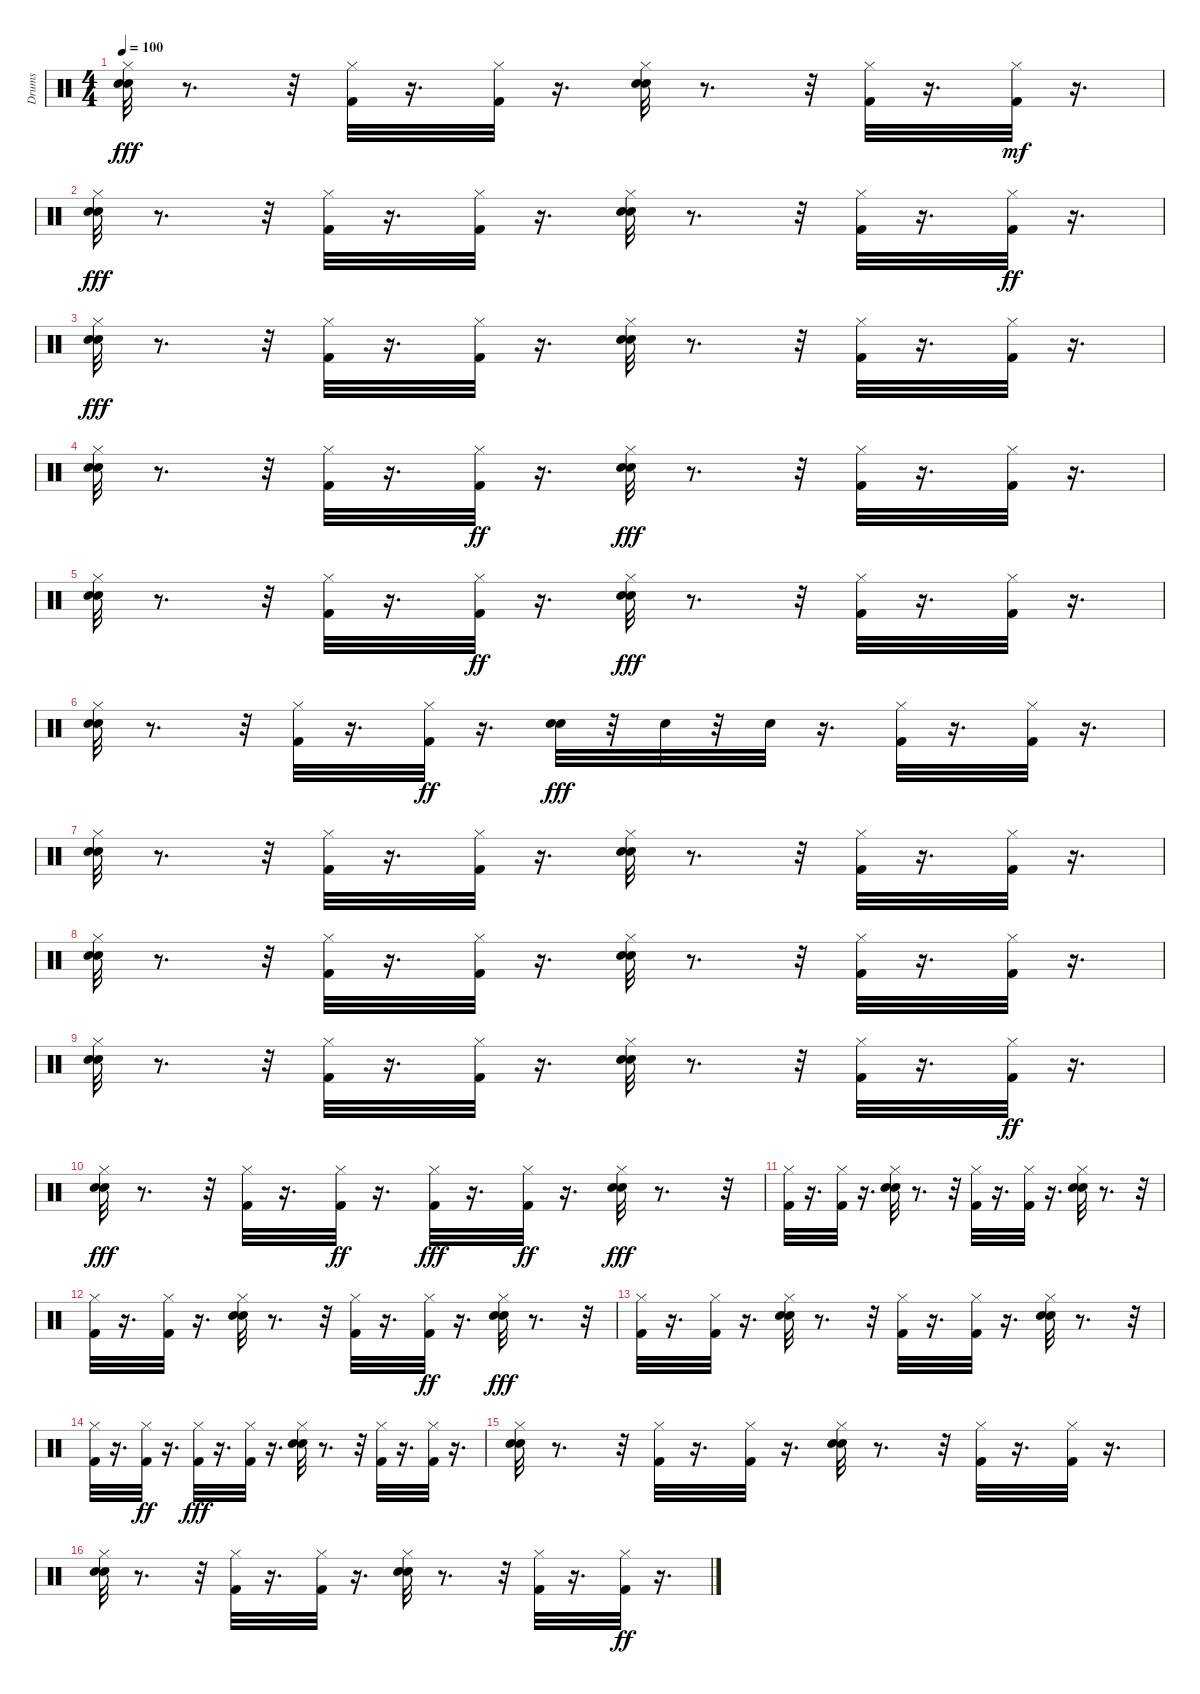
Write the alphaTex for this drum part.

\track ("Drums" "Drums") {instrument percussion}
\staff {score}
\articulation defaults
\ts (4 4)
\tempo 100
\clef neutral
\ks c
("Hi-Hat (closed)" "Snare (hit) 2" "Hand Clap (hit)").32{dy fff} r.8{d} r.32 ("Hi-Hat (closed)" "Kick (hit) 2").32 r.16{d} ("Kick (hit) 2" "Hi-Hat (closed)").32 r.16{d} ("Hand Clap (hit)" "Hi-Hat (closed)" "Snare (hit) 2").32 r.8{d} r.32 ("Hi-Hat (closed)" "Kick (hit) 2").32 r.16{d} ("Kick (hit) 2" "Hi-Hat (closed)").32{dy mf} r.16{d} |
("Snare (hit) 2" "Hand Clap (hit)" "Hi-Hat (closed)").32{dy fff} r.8{d} r.32 ("Hi-Hat (closed)" "Kick (hit) 2").32 r.16{d} ("Kick (hit) 2" "Hi-Hat (closed)").32 r.16{d} ("Hand Clap (hit)" "Hi-Hat (closed)" "Snare (hit) 2").32 r.8{d} r.32 ("Hi-Hat (closed)" "Kick (hit) 2").32 r.16{d} ("Kick (hit) 2" "Hi-Hat (closed)").32{dy ff} r.16{d} |
("Snare (hit) 2" "Hand Clap (hit)" "Hi-Hat (closed)").32{dy fff} r.8{d} r.32 ("Kick (hit) 2" "Hi-Hat (closed)").32 r.16{d} ("Hi-Hat (closed)" "Kick (hit) 2").32 r.16{d} ("Hand Clap (hit)" "Snare (hit) 2" "Hi-Hat (closed)").32 r.8{d} r.32 ("Hi-Hat (closed)" "Kick (hit) 2").32 r.16{d} ("Hi-Hat (closed)" "Kick (hit) 2").32 r.16{d} |
("Hi-Hat (closed)" "Snare (hit) 2" "Hand Clap (hit)").32 r.8{d} r.32 ("Hi-Hat (closed)" "Kick (hit) 2").32 r.16{d} ("Kick (hit) 2" "Hi-Hat (closed)").32{dy ff} r.16{d} ("Hi-Hat (closed)" "Snare (hit) 2" "Hand Clap (hit)").32{dy fff} r.8{d} r.32 ("Hi-Hat (closed)" "Kick (hit) 2").32 r.16{d} ("Hi-Hat (closed)" "Kick (hit) 2").32 r.16{d} |
("Hand Clap (hit)" "Snare (hit) 2" "Hi-Hat (closed)").32 r.8{d} r.32 ("Hi-Hat (closed)" "Kick (hit) 2").32 r.16{d} ("Kick (hit) 2" "Hi-Hat (closed)").32{dy ff} r.16{d} ("Snare (hit) 2" "Hand Clap (hit)" "Hi-Hat (closed)").32{dy fff} r.8{d} r.32 ("Hi-Hat (closed)" "Kick (hit) 2").32 r.16{d} ("Kick (hit) 2" "Hi-Hat (closed)").32 r.16{d} |
("Hand Clap (hit)" "Hi-Hat (closed)" "Snare (hit) 2").32 r.8{d} r.32 ("Hi-Hat (closed)" "Kick (hit) 2").32 r.16{d} ("Kick (hit) 2" "Hi-Hat (closed)").32{dy ff} r.16{d} ("Snare (hit) 2" "Hand Clap (hit)").32{dy fff} r.32 "Snare (hit) 2".32 r.32 "Snare (hit) 2".32 r.16{d} ("Kick (hit) 2" "Hi-Hat (closed)").32 r.16{d} ("Hi-Hat (closed)" "Kick (hit) 2").32 r.16{d} |
("Snare (hit) 2" "Hand Clap (hit)" "Hi-Hat (closed)").32 r.8{d} r.32 ("Hi-Hat (closed)" "Kick (hit) 2").32 r.16{d} ("Hi-Hat (closed)" "Kick (hit) 2").32 r.16{d} ("Hi-Hat (closed)" "Snare (hit) 2" "Hand Clap (hit)").32 r.8{d} r.32 ("Kick (hit) 2" "Hi-Hat (closed)").32 r.16{d} ("Hi-Hat (closed)" "Kick (hit) 2").32 r.16{d} |
("Snare (hit) 2" "Hand Clap (hit)" "Hi-Hat (closed)").32 r.8{d} r.32 ("Hi-Hat (closed)" "Kick (hit) 2").32 r.16{d} ("Hi-Hat (closed)" "Kick (hit) 2").32 r.16{d} ("Hi-Hat (closed)" "Hand Clap (hit)" "Snare (hit) 2").32 r.8{d} r.32 ("Kick (hit) 2" "Hi-Hat (closed)").32 r.16{d} ("Hi-Hat (closed)" "Kick (hit) 2").32 r.16{d} |
("Snare (hit) 2" "Hi-Hat (closed)" "Hand Clap (hit)").32 r.8{d} r.32 ("Hi-Hat (closed)" "Kick (hit) 2").32 r.16{d} ("Hi-Hat (closed)" "Kick (hit) 2").32 r.16{d} ("Hand Clap (hit)" "Snare (hit) 2" "Hi-Hat (closed)").32 r.8{d} r.32 ("Hi-Hat (closed)" "Kick (hit) 2").32 r.16{d} ("Kick (hit) 2" "Hi-Hat (closed)").32{dy ff} r.16{d} |
("Hi-Hat (closed)" "Snare (hit) 2" "Hand Clap (hit)").32{dy fff} r.8{d} r.32 ("Hi-Hat (closed)" "Kick (hit) 2").32 r.16{d} ("Hi-Hat (closed)" "Kick (hit) 2").32{dy ff} r.16{d} ("Hi-Hat (closed)" "Kick (hit) 2").32{dy fff} r.16{d} ("Kick (hit) 2" "Hi-Hat (closed)").32{dy ff} r.16{d} ("Snare (hit) 2" "Hi-Hat (closed)" "Hand Clap (hit)").32{dy fff} r.8{d} r.32 |
("Hi-Hat (closed)" "Kick (hit) 2").32 r.16{d} ("Hi-Hat (closed)" "Kick (hit) 2").32 r.16{d} ("Hi-Hat (closed)" "Hand Clap (hit)" "Snare (hit) 2").32 r.8{d} r.32 ("Kick (hit) 2" "Hi-Hat (closed)").32 r.16{d} ("Hi-Hat (closed)" "Kick (hit) 2").32 r.16{d} ("Hand Clap (hit)" "Snare (hit) 2" "Hi-Hat (closed)").32 r.8{d} r.32 |
("Hi-Hat (closed)" "Kick (hit) 2").32 r.16{d} ("Hi-Hat (closed)" "Kick (hit) 2").32 r.16{d} ("Hand Clap (hit)" "Snare (hit) 2" "Hi-Hat (closed)").32 r.8{d} r.32 ("Kick (hit) 2" "Hi-Hat (closed)").32 r.16{d} ("Kick (hit) 2" "Hi-Hat (closed)").32{dy ff} r.16{d} ("Hand Clap (hit)" "Snare (hit) 2" "Hi-Hat (closed)").32{dy fff} r.8{d} r.32 |
("Hi-Hat (closed)" "Kick (hit) 2").32 r.16{d} ("Hi-Hat (closed)" "Kick (hit) 2").32 r.16{d} ("Hi-Hat (closed)" "Hand Clap (hit)" "Snare (hit) 2").32 r.8{d} r.32 ("Hi-Hat (closed)" "Kick (hit) 2").32 r.16{d} ("Hi-Hat (closed)" "Kick (hit) 2").32 r.16{d} ("Hi-Hat (closed)" "Snare (hit) 2" "Hand Clap (hit)").32 r.8{d} r.32 |
("Kick (hit) 2" "Hi-Hat (closed)").32 r.16{d} ("Hi-Hat (closed)" "Kick (hit) 2").32{dy ff} r.16{d} ("Hi-Hat (closed)" "Kick (hit) 2").32{dy fff} r.16{d} ("Hi-Hat (closed)" "Kick (hit) 2").32 r.16{d} ("Hi-Hat (closed)" "Hand Clap (hit)" "Snare (hit) 2").32 r.8{d} r.32 ("Kick (hit) 2" "Hi-Hat (closed)").32 r.16{d} ("Kick (hit) 2" "Hi-Hat (closed)").32 r.16{d} |
("Hand Clap (hit)" "Hi-Hat (closed)" "Snare (hit) 2").32 r.8{d} r.32 ("Kick (hit) 2" "Hi-Hat (closed)").32 r.16{d} ("Kick (hit) 2" "Hi-Hat (closed)").32 r.16{d} ("Hand Clap (hit)" "Hi-Hat (closed)" "Snare (hit) 2").32 r.8{d} r.32 ("Kick (hit) 2" "Hi-Hat (closed)").32 r.16{d} ("Hi-Hat (closed)" "Kick (hit) 2").32 r.16{d} |
("Hi-Hat (closed)" "Snare (hit) 2" "Hand Clap (hit)").32 r.8{d} r.32 ("Hi-Hat (closed)" "Kick (hit) 2").32 r.16{d} ("Hi-Hat (closed)" "Kick (hit) 2").32 r.16{d} ("Hand Clap (hit)" "Hi-Hat (closed)" "Snare (hit) 2").32 r.8{d} r.32 ("Hi-Hat (closed)" "Kick (hit) 2").32 r.16{d} ("Kick (hit) 2" "Hi-Hat (closed)").32{dy ff} r.16{d}
